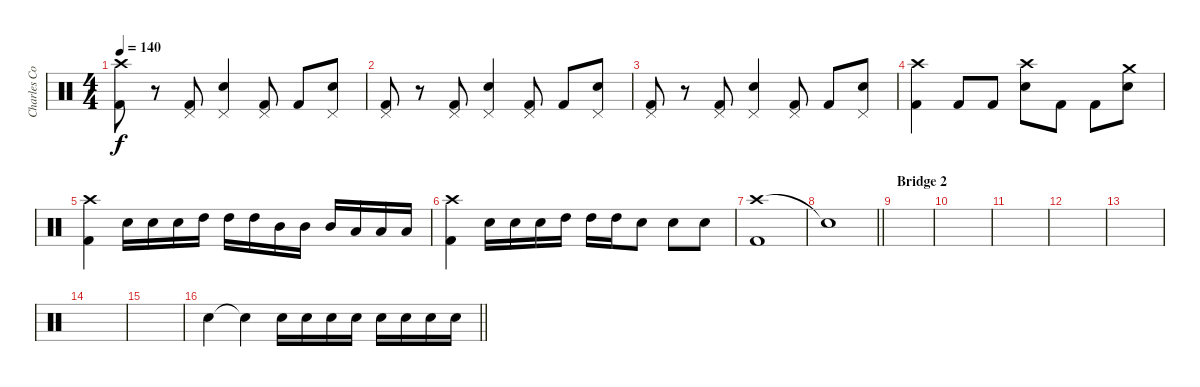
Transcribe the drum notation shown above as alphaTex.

\track ("Charles Comeau" "Charles Co") {instrument percussion}
\staff {score}
\articulation defaults
\ts (4 4)
\tempo 140
\clef neutral
\ks c
("Crash high (hit)" "Kick (hit) 2").8{dy f} r.8 ("Pedal Hi-Hat (hit)" "Kick (hit) 2").8 ("Pedal Hi-Hat (hit)" "Snare (hit) 2").4 ("Pedal Hi-Hat (hit)" "Kick (hit) 2").8 "Kick (hit) 2".8 ("Pedal Hi-Hat (hit)" "Snare (hit) 2").8 |
("Pedal Hi-Hat (hit)" "Kick (hit) 2").8 r.8 ("Pedal Hi-Hat (hit)" "Kick (hit) 2").8 ("Pedal Hi-Hat (hit)" "Snare (hit) 2").4 ("Pedal Hi-Hat (hit)" "Kick (hit) 2").8 "Kick (hit) 2".8 ("Pedal Hi-Hat (hit)" "Snare (hit) 2").8 |
("Pedal Hi-Hat (hit)" "Kick (hit) 2").8 r.8 ("Pedal Hi-Hat (hit)" "Kick (hit) 2").8 ("Pedal Hi-Hat (hit)" "Snare (hit) 2").4 ("Pedal Hi-Hat (hit)" "Kick (hit) 2").8 "Kick (hit) 2".8 ("Pedal Hi-Hat (hit)" "Snare (hit) 2").8 |
("Crash high (hit)" "Kick (hit) 2").4 "Kick (hit) 2".8 "Kick (hit) 2".8 ("Crash high (hit)" "Snare (hit) 2").8 "Kick (hit) 2".8 "Kick (hit) 2".8 ("Crash medium (hit)" "Snare (hit) 2").8 |
("Crash high (hit)" "Kick (hit) 2").4 "Snare (hit) 2".16 "Snare (hit) 2".16 "Snare (hit) 2".16 "High Tom (hit)".16 "High Tom (hit)".16 "High Tom (hit)".16 "Mid Tom (hit)".16 "Mid Tom (hit)".16 "Mid Tom (hit)".16 "Low Tom (hit)".16 "Low Tom (hit)".16 "Low Tom (hit)".16 |
("Crash high (hit)" "Kick (hit) 2").4 "Snare (hit) 2".16 "Snare (hit) 2".16 "Snare (hit) 2".16 "High Tom (hit)".16 "High Tom (hit)".16 "High Tom (hit)".16 "Snare (hit) 2".8 "Snare (hit) 2".8 "Snare (hit) 2".8 |
("Crash high (hit)" "Kick (hit) 2").1 |
\barLineRight lightlight "Snare (hit)"{t}.1
|
\section ("" "Bridge 2")
|
|
|
|
|
|
|
\barLineRight lightlight "Snare (hit)".4 "Snare (hit)"{t}.4 "Snare (hit) 2".16 "Snare (hit) 2".16 "Snare (hit) 2".16 "Snare (hit) 2".16 "Snare (hit) 2".16 "Snare (hit) 2".16 "Snare (hit) 2".16 "Snare (hit) 2".16
